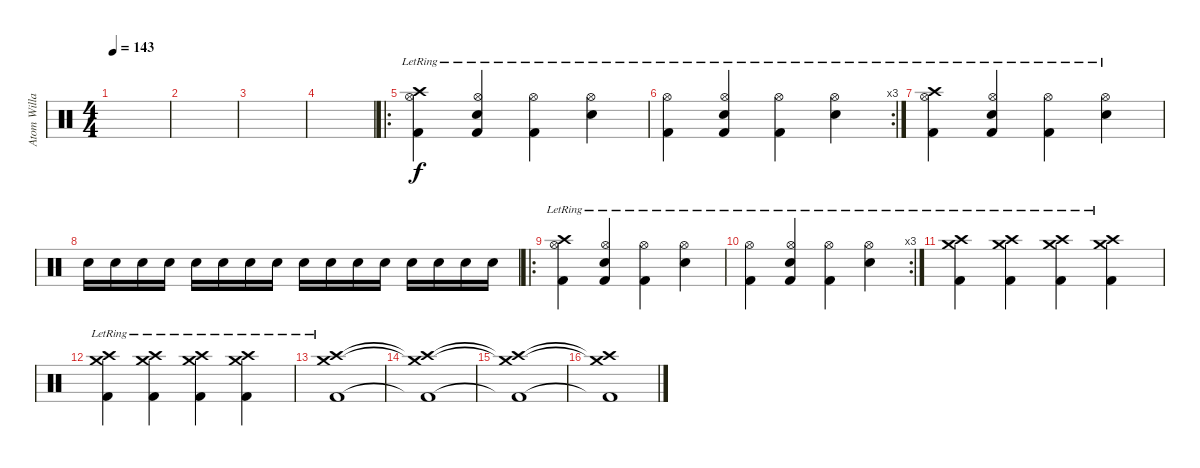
\track ("Atom Willard (drums)" "Atom Willa") {instrument percussion}
\staff {score}
\articulation defaults
\ts (4 4)
\tempo 143
\clef neutral
\ks c
|
|
|
|
\ro
("Kick (hit) 2" "Hi-Hat (open)"{lr} "Crash high (hit)").4 ("Kick (hit) 2" "Hi-Hat (open)"{lr} "Snare (hit) 2").4 ("Kick (hit) 2" "Hi-Hat (open)"{lr}).4 ("Hi-Hat (open)"{lr} "Snare (hit) 2").4 |
\rc 3
("Kick (hit) 2" "Hi-Hat (open)"{lr}).4 ("Kick (hit) 2" "Hi-Hat (open)"{lr} "Snare (hit) 2").4 ("Kick (hit) 2" "Hi-Hat (open)"{lr}).4 ("Hi-Hat (open)"{lr} "Snare (hit) 2").4 |
("Kick (hit) 2" "Hi-Hat (open)"{lr} "Crash high (hit)").4 ("Kick (hit) 2" "Hi-Hat (open)"{lr} "Snare (hit) 2").4 ("Kick (hit) 2" "Hi-Hat (open)"{lr}).4 ("Hi-Hat (open)"{lr} "Snare (hit) 2").4 |
"Snare (hit) 2".16 "Snare (hit) 2".16 "Snare (hit) 2".16 "Snare (hit) 2".16 "Snare (hit) 2".16 "Snare (hit) 2".16 "Snare (hit) 2".16 "Snare (hit) 2".16 "Snare (hit) 2".16 "Snare (hit) 2".16 "Snare (hit) 2".16 "Snare (hit) 2".16 "Snare (hit) 2".16 "Snare (hit) 2".16 "Snare (hit) 2".16 "Snare (hit) 2".16 |
\ro
("Kick (hit) 2" "Hi-Hat (open)"{lr} "Crash high (hit)").4 ("Kick (hit) 2" "Hi-Hat (open)"{lr} "Snare (hit) 2").4 ("Kick (hit) 2" "Hi-Hat (open)"{lr}).4 ("Hi-Hat (open)"{lr} "Snare (hit) 2").4 |
\rc 3
("Kick (hit) 2" "Hi-Hat (open)"{lr}).4 ("Kick (hit) 2" "Hi-Hat (open)"{lr} "Snare (hit) 2").4 ("Kick (hit) 2" "Hi-Hat (open)"{lr}).4 ("Hi-Hat (open)"{lr} "Snare (hit) 2").4 |
("Kick (hit) 2" "Crash medium (hit)"{lr} "Crash high (hit)"{lr}).4 ("Kick (hit) 2" "Crash medium (hit)"{lr} "Crash high (hit)"{lr}).4 ("Kick (hit) 2" "Crash medium (hit)"{lr} "Crash high (hit)"{lr}).4 ("Kick (hit) 2" "Crash medium (hit)"{lr} "Crash high (hit)"{lr}).4 |
("Kick (hit) 2" "Crash medium (hit)"{lr} "Crash high (hit)"{lr}).4 ("Kick (hit) 2" "Crash medium (hit)"{lr} "Crash high (hit)"{lr}).4 ("Kick (hit) 2" "Crash medium (hit)"{lr} "Crash high (hit)"{lr}).4 ("Kick (hit) 2" "Crash medium (hit)"{lr} "Crash high (hit)"{lr}).4 |
("Kick (hit) 2" "Crash medium (hit)"{lr} "Crash high (hit)"{lr}).1 |
("Kick (hit) 2"{t} "Crash medium (hit)"{t} "Crash high (hit)"{t}).1 |
("Kick (hit) 2"{t} "Crash medium (hit)"{t} "Crash high (hit)"{t}).1 |
("Kick (hit) 2"{t} "Crash medium (hit)"{t} "Crash high (hit)"{t}).1
